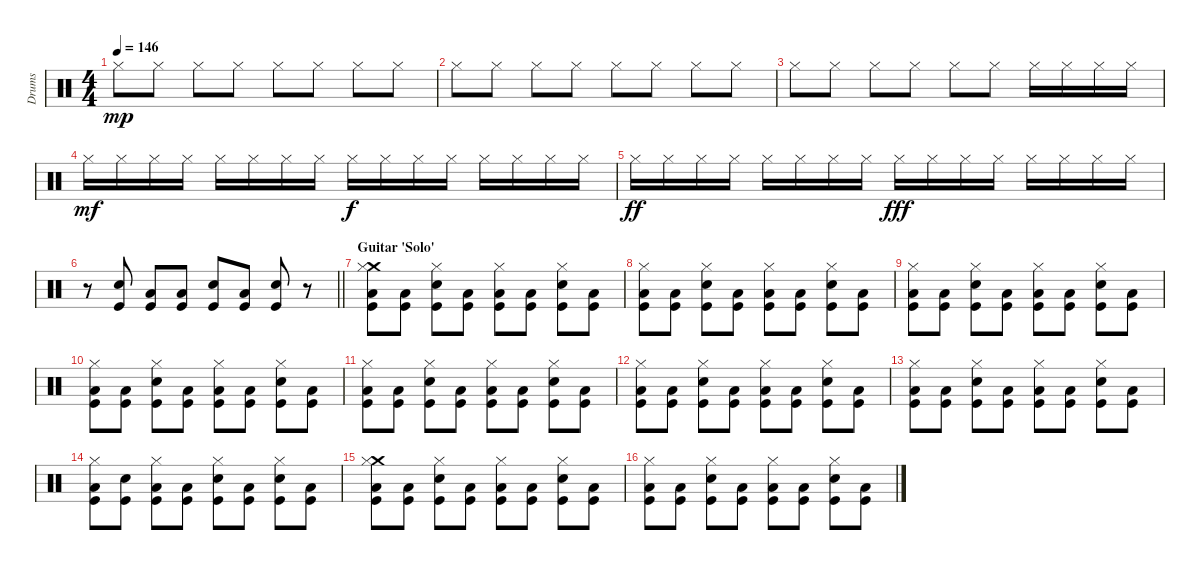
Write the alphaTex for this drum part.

\track ("Drums" "Drums") {instrument percussion}
\staff {score}
\articulation defaults
\ts (4 4)
\tempo 146
\clef neutral
\ks c "Hi-Hat (closed)".8{dy mp} "Hi-Hat (closed)".8 "Hi-Hat (closed)".8 "Hi-Hat (closed)".8 "Hi-Hat (closed)".8 "Hi-Hat (closed)".8 "Hi-Hat (closed)".8 "Hi-Hat (closed)".8
|
"Hi-Hat (closed)".8 "Hi-Hat (closed)".8 "Hi-Hat (closed)".8 "Hi-Hat (closed)".8 "Hi-Hat (closed)".8 "Hi-Hat (closed)".8 "Hi-Hat (closed)".8 "Hi-Hat (closed)".8 |
"Hi-Hat (closed)".8 "Hi-Hat (closed)".8 "Hi-Hat (closed)".8 "Hi-Hat (closed)".8 "Hi-Hat (closed)".8 "Hi-Hat (closed)".8 "Hi-Hat (closed)".16 "Hi-Hat (closed)".16 "Hi-Hat (closed)".16 "Hi-Hat (closed)".16 |
"Hi-Hat (closed)".16{dy mf} "Hi-Hat (closed)".16 "Hi-Hat (closed)".16 "Hi-Hat (closed)".16 "Hi-Hat (closed)".16 "Hi-Hat (closed)".16 "Hi-Hat (closed)".16 "Hi-Hat (closed)".16 "Hi-Hat (closed)".16{dy f} "Hi-Hat (closed)".16 "Hi-Hat (closed)".16 "Hi-Hat (closed)".16 "Hi-Hat (closed)".16 "Hi-Hat (closed)".16 "Hi-Hat (closed)".16 "Hi-Hat (closed)".16 |
"Hi-Hat (closed)".16{dy ff} "Hi-Hat (closed)".16 "Hi-Hat (closed)".16 "Hi-Hat (closed)".16 "Hi-Hat (closed)".16 "Hi-Hat (closed)".16 "Hi-Hat (closed)".16 "Hi-Hat (closed)".16 "Hi-Hat (closed)".16{dy fff} "Hi-Hat (closed)".16 "Hi-Hat (closed)".16 "Hi-Hat (closed)".16 "Hi-Hat (closed)".16 "Hi-Hat (closed)".16 "Hi-Hat (closed)".16 "Hi-Hat (closed)".16 |
\barLineRight lightlight
r.8 ("Electric Snare (hit)" "Kick (hit)").8 ("Low Floor Tom (hit)" "Kick (hit)").8 ("Low Floor Tom (hit)" "Kick (hit)").8 ("Electric Snare (hit)" "Kick (hit)").8 ("Low Floor Tom (hit)" "Kick (hit)").8 ("Electric Snare (hit)" "Kick (hit)").8 r.8 |
\section ("" "Guitar 'Solo'")
("Crash medium (hit)" "Hi-Hat (closed)" "Low Floor Tom (hit)" "Kick (hit)").8 ("Low Floor Tom (hit)" "Kick (hit)").8 ("Hi-Hat (closed)" "Electric Snare (hit)" "Kick (hit)").8 ("Low Floor Tom (hit)" "Kick (hit)").8 ("Hi-Hat (closed)" "Low Floor Tom (hit)" "Kick (hit)").8 ("Low Floor Tom (hit)" "Kick (hit)").8 ("Hi-Hat (closed)" "Electric Snare (hit)" "Kick (hit)").8 ("Low Floor Tom (hit)" "Kick (hit)").8 |
("Hi-Hat (closed)" "Low Floor Tom (hit)" "Kick (hit)").8 ("Low Floor Tom (hit)" "Kick (hit)").8 ("Hi-Hat (closed)" "Electric Snare (hit)" "Kick (hit)").8 ("Low Floor Tom (hit)" "Kick (hit)").8 ("Hi-Hat (closed)" "Low Floor Tom (hit)" "Kick (hit)").8 ("Low Floor Tom (hit)" "Kick (hit)").8 ("Hi-Hat (closed)" "Electric Snare (hit)" "Kick (hit)").8 ("Low Floor Tom (hit)" "Kick (hit)").8 |
("Hi-Hat (closed)" "Low Floor Tom (hit)" "Kick (hit)").8 ("Low Floor Tom (hit)" "Kick (hit)").8 ("Hi-Hat (closed)" "Electric Snare (hit)" "Kick (hit)").8 ("Low Floor Tom (hit)" "Kick (hit)").8 ("Hi-Hat (closed)" "Low Floor Tom (hit)" "Kick (hit)").8 ("Low Floor Tom (hit)" "Kick (hit)").8 ("Hi-Hat (closed)" "Electric Snare (hit)" "Kick (hit)").8 ("Low Floor Tom (hit)" "Kick (hit)").8 |
("Hi-Hat (closed)" "Low Floor Tom (hit)" "Kick (hit)").8 ("Low Floor Tom (hit)" "Kick (hit)").8 ("Hi-Hat (closed)" "Electric Snare (hit)" "Kick (hit)").8 ("Low Floor Tom (hit)" "Kick (hit)").8 ("Hi-Hat (closed)" "Low Floor Tom (hit)" "Kick (hit)").8 ("Low Floor Tom (hit)" "Kick (hit)").8 ("Hi-Hat (closed)" "Electric Snare (hit)" "Kick (hit)").8 ("Low Floor Tom (hit)" "Kick (hit)").8 |
("Hi-Hat (closed)" "Low Floor Tom (hit)" "Kick (hit)").8 ("Low Floor Tom (hit)" "Kick (hit)").8 ("Hi-Hat (closed)" "Electric Snare (hit)" "Kick (hit)").8 ("Low Floor Tom (hit)" "Kick (hit)").8 ("Hi-Hat (closed)" "Low Floor Tom (hit)" "Kick (hit)").8 ("Low Floor Tom (hit)" "Kick (hit)").8 ("Hi-Hat (closed)" "Electric Snare (hit)" "Kick (hit)").8 ("Low Floor Tom (hit)" "Kick (hit)").8 |
("Hi-Hat (closed)" "Low Floor Tom (hit)" "Kick (hit)").8 ("Low Floor Tom (hit)" "Kick (hit)").8 ("Hi-Hat (closed)" "Electric Snare (hit)" "Kick (hit)").8 ("Low Floor Tom (hit)" "Kick (hit)").8 ("Hi-Hat (closed)" "Low Floor Tom (hit)" "Kick (hit)").8 ("Low Floor Tom (hit)" "Kick (hit)").8 ("Hi-Hat (closed)" "Electric Snare (hit)" "Kick (hit)").8 ("Low Floor Tom (hit)" "Kick (hit)").8 |
("Hi-Hat (closed)" "Low Floor Tom (hit)" "Kick (hit)").8 ("Low Floor Tom (hit)" "Kick (hit)").8 ("Hi-Hat (closed)" "Electric Snare (hit)" "Kick (hit)").8 ("Low Floor Tom (hit)" "Kick (hit)").8 ("Hi-Hat (closed)" "Low Floor Tom (hit)" "Kick (hit)").8 ("Low Floor Tom (hit)" "Kick (hit)").8 ("Hi-Hat (closed)" "Electric Snare (hit)" "Kick (hit)").8 ("Low Floor Tom (hit)" "Kick (hit)").8 |
("Hi-Hat (closed)" "Low Floor Tom (hit)" "Kick (hit)").8 ("Electric Snare (hit)" "Kick (hit)").8 ("Hi-Hat (closed)" "Low Floor Tom (hit)" "Kick (hit)").8 ("Low Floor Tom (hit)" "Kick (hit)").8 ("Hi-Hat (closed)" "Electric Snare (hit)" "Kick (hit)").8 ("Low Floor Tom (hit)" "Kick (hit)").8 ("Hi-Hat (closed)" "Electric Snare (hit)" "Kick (hit)").8 ("Low Floor Tom (hit)" "Kick (hit)").8 |
("Crash medium (hit)" "Hi-Hat (closed)" "Low Floor Tom (hit)" "Kick (hit)").8 ("Low Floor Tom (hit)" "Kick (hit)").8 ("Hi-Hat (closed)" "Electric Snare (hit)" "Kick (hit)").8 ("Low Floor Tom (hit)" "Kick (hit)").8 ("Hi-Hat (closed)" "Low Floor Tom (hit)" "Kick (hit)").8 ("Low Floor Tom (hit)" "Kick (hit)").8 ("Hi-Hat (closed)" "Electric Snare (hit)" "Kick (hit)").8 ("Low Floor Tom (hit)" "Kick (hit)").8 |
("Hi-Hat (closed)" "Low Floor Tom (hit)" "Kick (hit)").8 ("Low Floor Tom (hit)" "Kick (hit)").8 ("Hi-Hat (closed)" "Electric Snare (hit)" "Kick (hit)").8 ("Low Floor Tom (hit)" "Kick (hit)").8 ("Hi-Hat (closed)" "Low Floor Tom (hit)" "Kick (hit)").8 ("Low Floor Tom (hit)" "Kick (hit)").8 ("Hi-Hat (closed)" "Electric Snare (hit)" "Kick (hit)").8 ("Low Floor Tom (hit)" "Kick (hit)").8
